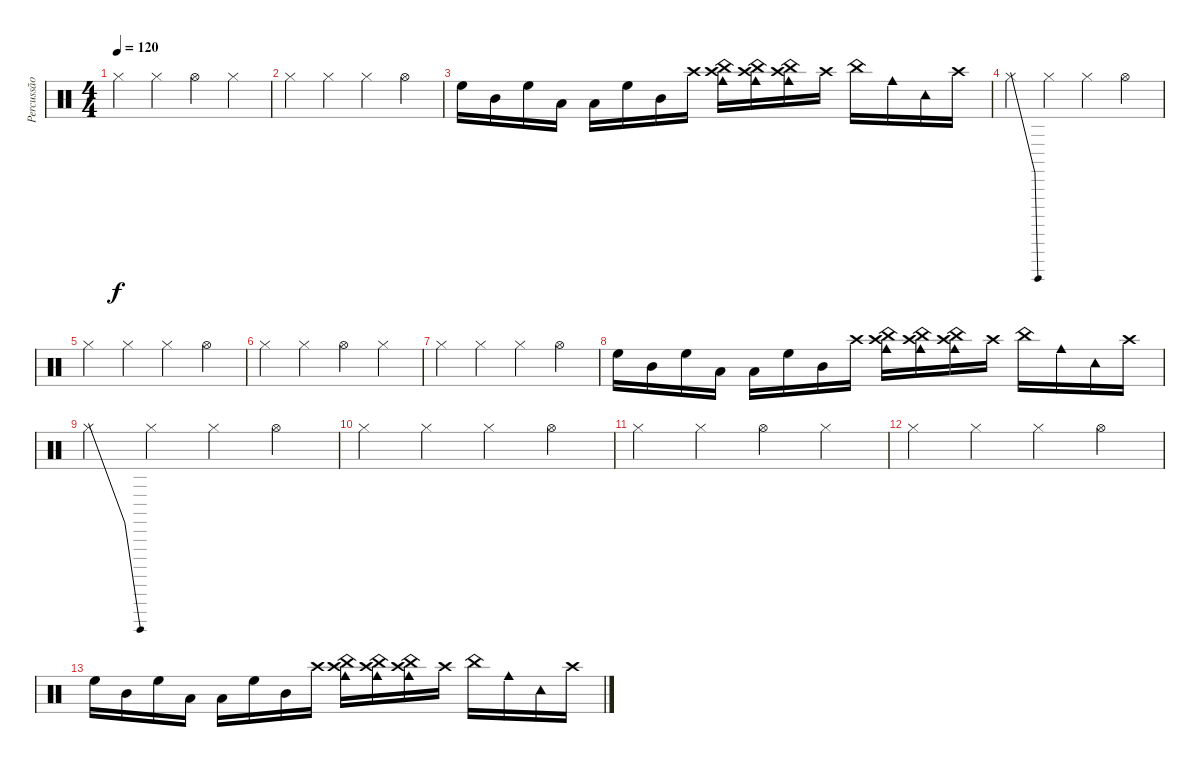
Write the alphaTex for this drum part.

\track ("Percussão" "Percussão") {instrument percussion}
\staff {score}
\articulation defaults
\ts (4 4)
\tempo 120
\clef neutral
\ks c "Hi-Hat (closed)".4{dy f} "Hi-Hat (closed)".4 "Hi-Hat (open)".4 "Hi-Hat (closed)".4
|
"Hi-Hat (closed)".4 "Hi-Hat (closed)".4 "Hi-Hat (closed)".4 "Hi-Hat (open)".4 |
"High Floor Tom (hit)".16 "Mid Tom (hit)".16 "High Floor Tom (hit)".16 "Low Tom (hit)".16 "Low Floor Tom (hit)".16 "High Floor Tom (hit)".16 "Mid Tom (hit)".16 "Crash high (hit)".16 ("China (hit)" "Crash high (hit)" "Cowbell medium (hit)").16 ("China (hit)" "Crash high (hit)" "Cowbell medium (hit)").16 ("China (hit)" "Crash high (hit)" "Cowbell medium (hit)").16 "Crash high (hit)".16 "China (hit)".16 "Cowbell medium (hit)".16 "Tambourine (hit)".16 "Crash high (hit)".16 |
"Hi-Hat (closed)"{be (bend 0 0 60 4)}.4 "Hi-Hat (closed)".4 "Hi-Hat (closed)".4 "Hi-Hat (open)".4 |
"Hi-Hat (closed)".4 "Hi-Hat (closed)".4 "Hi-Hat (closed)".4 "Hi-Hat (open)".4 |
"Hi-Hat (closed)".4 "Hi-Hat (closed)".4 "Hi-Hat (open)".4 "Hi-Hat (closed)".4 |
"Hi-Hat (closed)".4 "Hi-Hat (closed)".4 "Hi-Hat (closed)".4 "Hi-Hat (open)".4 |
"High Floor Tom (hit)".16 "Mid Tom (hit)".16 "High Floor Tom (hit)".16 "Low Tom (hit)".16 "Low Floor Tom (hit)".16 "High Floor Tom (hit)".16 "Mid Tom (hit)".16 "Crash high (hit)".16 ("China (hit)" "Crash high (hit)" "Cowbell medium (hit)").16 ("China (hit)" "Crash high (hit)" "Cowbell medium (hit)").16 ("China (hit)" "Crash high (hit)" "Cowbell medium (hit)").16 "Crash high (hit)".16 "China (hit)".16 "Cowbell medium (hit)".16 "Tambourine (hit)".16 "Crash high (hit)".16 |
"Hi-Hat (closed)"{be (bend 0 0 60 4)}.4 "Hi-Hat (closed)".4 "Hi-Hat (closed)".4 "Hi-Hat (open)".4 |
"Hi-Hat (closed)".4 "Hi-Hat (closed)".4 "Hi-Hat (closed)".4 "Hi-Hat (open)".4 |
"Hi-Hat (closed)".4 "Hi-Hat (closed)".4 "Hi-Hat (open)".4 "Hi-Hat (closed)".4 |
"Hi-Hat (closed)".4 "Hi-Hat (closed)".4 "Hi-Hat (closed)".4 "Hi-Hat (open)".4 |
"High Floor Tom (hit)".16 "Mid Tom (hit)".16 "High Floor Tom (hit)".16 "Low Tom (hit)".16 "Low Floor Tom (hit)".16 "High Floor Tom (hit)".16 "Mid Tom (hit)".16 "Crash high (hit)".16 ("China (hit)" "Crash high (hit)" "Cowbell medium (hit)").16 ("China (hit)" "Crash high (hit)" "Cowbell medium (hit)").16 ("China (hit)" "Crash high (hit)" "Cowbell medium (hit)").16 "Crash high (hit)".16 "China (hit)".16 "Cowbell medium (hit)".16 "Tambourine (hit)".16 "Crash high (hit)".16
